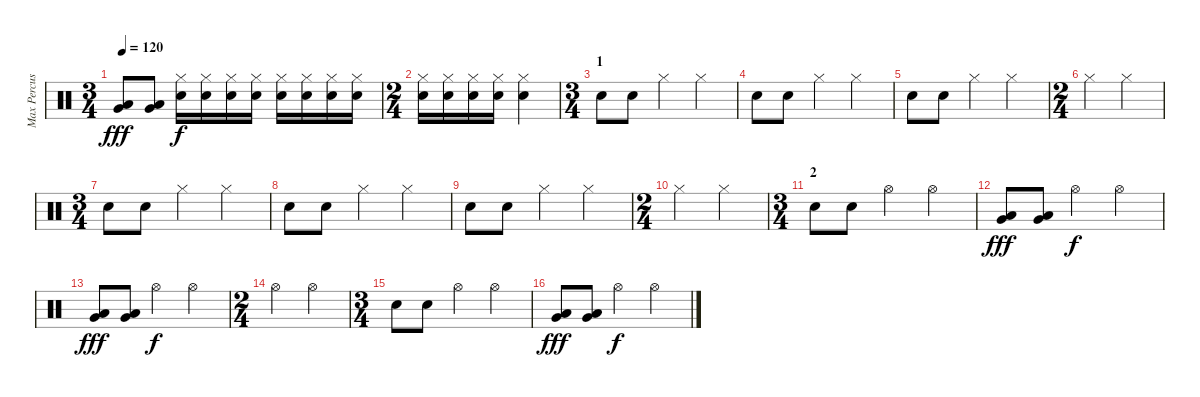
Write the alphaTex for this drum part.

\track ("Max Percussion" "Max Percus") {instrument percussion}
\staff {score}
\articulation defaults
\ts (3 4)
\tempo 120
\clef neutral
\ks c
("Very Low Tom (hit)" "Low Floor Tom (hit)").8{dy fff} ("Very Low Tom (hit)" "Low Floor Tom (hit)").8 ("Hi-Hat (closed)" "Snare (hit) 2").16{dy f} ("Hi-Hat (closed)" "Snare (hit) 2").16 ("Hi-Hat (closed)" "Snare (hit) 2").16 ("Hi-Hat (closed)" "Snare (hit) 2").16 ("Hi-Hat (closed)" "Snare (hit) 2").16 ("Hi-Hat (closed)" "Snare (hit) 2").16 ("Hi-Hat (closed)" "Snare (hit) 2").16 ("Hi-Hat (closed)" "Snare (hit) 2").16 |
\ts (2 4)
("Hi-Hat (closed)" "Snare (hit) 2").16 ("Hi-Hat (closed)" "Snare (hit) 2").16 ("Hi-Hat (closed)" "Snare (hit) 2").16 ("Hi-Hat (closed)" "Snare (hit) 2").16 ("Hi-Hat (closed)" "Snare (hit) 2").4 |
\ts (3 4)
\section ("" "1")
"Snare (hit) 2".8 "Snare (hit) 2".8 "Hi-Hat (closed)".4 "Hi-Hat (closed)".4 |
"Snare (hit) 2".8 "Snare (hit) 2".8 "Hi-Hat (closed)".4 "Hi-Hat (closed)".4 |
"Snare (hit) 2".8 "Snare (hit) 2".8 "Hi-Hat (closed)".4 "Hi-Hat (closed)".4 |
\ts (2 4)
"Hi-Hat (closed)".4 "Hi-Hat (closed)".4 |
\ts (3 4)
"Snare (hit) 2".8 "Snare (hit) 2".8 "Hi-Hat (closed)".4 "Hi-Hat (closed)".4 |
"Snare (hit) 2".8 "Snare (hit) 2".8 "Hi-Hat (closed)".4 "Hi-Hat (closed)".4 |
"Snare (hit) 2".8 "Snare (hit) 2".8 "Hi-Hat (closed)".4 "Hi-Hat (closed)".4 |
\ts (2 4)
"Hi-Hat (closed)".4 "Hi-Hat (closed)".4 |
\ts (3 4)
\section ("" "2")
"Snare (hit) 2".8 "Snare (hit) 2".8 "Hi-Hat (open)".4 "Hi-Hat (open)".4 |
("Low Tom (hit)" "Very Low Tom (hit)").8{dy fff} ("Low Tom (hit)" "Very Low Tom (hit)").8 "Hi-Hat (open)".4{dy f} "Hi-Hat (open)".4 |
("Very Low Tom (hit)" "Low Floor Tom (hit)").8{dy fff} ("Very Low Tom (hit)" "Low Floor Tom (hit)").8 "Hi-Hat (open)".4{dy f} "Hi-Hat (open)".4 |
\ts (2 4)
"Hi-Hat (open)".4 "Hi-Hat (open)".4 |
\ts (3 4)
"Snare (hit) 2".8 "Snare (hit) 2".8 "Hi-Hat (open)".4 "Hi-Hat (open)".4 |
("Low Tom (hit)" "Very Low Tom (hit)").8{dy fff} ("Low Tom (hit)" "Very Low Tom (hit)").8 "Hi-Hat (open)".4{dy f} "Hi-Hat (open)".4
